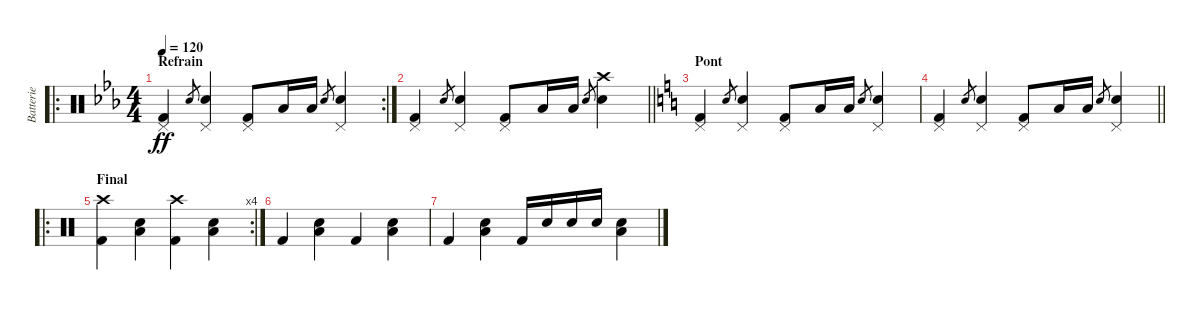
\track ("Batterie" "Batterie") {instrument percussion}
\staff {score}
\articulation defaults
\ro
\rc 2
\ts (4 4)
\section ("" "Refrain")
\tempo 120
\clef neutral
\ks eb
("Pedal Hi-Hat (hit)" "Kick (hit) 2").4{dy ff} "Electric Snare (hit)".8{gr} ("Pedal Hi-Hat (hit)" "Electric Snare (hit)").4 ("Pedal Hi-Hat (hit)" "Kick (hit) 2").8 "Low Floor Tom (hit)".16 "Low Floor Tom (hit)".16 "Electric Snare (hit)".8{gr} ("Pedal Hi-Hat (hit)" "Electric Snare (hit)").4 |
\barLineRight lightlight
("Pedal Hi-Hat (hit)" "Kick (hit) 2").4 "Electric Snare (hit)".8{gr} ("Pedal Hi-Hat (hit)" "Electric Snare (hit)").4 ("Pedal Hi-Hat (hit)" "Kick (hit) 2").8 "Low Floor Tom (hit)".16 "Low Floor Tom (hit)".16 "Electric Snare (hit)".8{gr} ("Crash high (hit)" "Electric Snare (hit)").4 |
\section ("" "Pont")
\ks c
("Pedal Hi-Hat (hit)" "Kick (hit) 2").4 "Electric Snare (hit)".8{gr} ("Pedal Hi-Hat (hit)" "Electric Snare (hit)").4 ("Pedal Hi-Hat (hit)" "Kick (hit) 2").8 "Low Floor Tom (hit)".16 "Low Floor Tom (hit)".16 "Electric Snare (hit)".8{gr} ("Pedal Hi-Hat (hit)" "Electric Snare (hit)").4 |
\barLineRight lightlight
("Pedal Hi-Hat (hit)" "Kick (hit) 2").4 "Electric Snare (hit)".8{gr} ("Pedal Hi-Hat (hit)" "Electric Snare (hit)").4 ("Pedal Hi-Hat (hit)" "Kick (hit) 2").8 "Low Floor Tom (hit)".16 "Low Floor Tom (hit)".16 "Electric Snare (hit)".8{gr} ("Pedal Hi-Hat (hit)" "Electric Snare (hit)").4 |
\ro
\rc 4
\section ("" "Final")
("Crash high (hit)" "Kick (hit) 2").4 ("Electric Snare (hit)" "Low Floor Tom (hit)").4 ("Crash high (hit)" "Kick (hit) 2").4 ("Electric Snare (hit)" "Low Floor Tom (hit)").4 |
"Kick (hit) 2".4 ("Electric Snare (hit)" "Low Floor Tom (hit)").4 "Kick (hit) 2".4 ("Electric Snare (hit)" "Low Floor Tom (hit)").4 |
"Kick (hit) 2".4 ("Electric Snare (hit)" "Low Floor Tom (hit)").4 "Kick (hit) 2".16 "Electric Snare (hit)".16 "Electric Snare (hit)".16 "Electric Snare (hit)".16 ("Electric Snare (hit)" "Low Floor Tom (hit)").4
